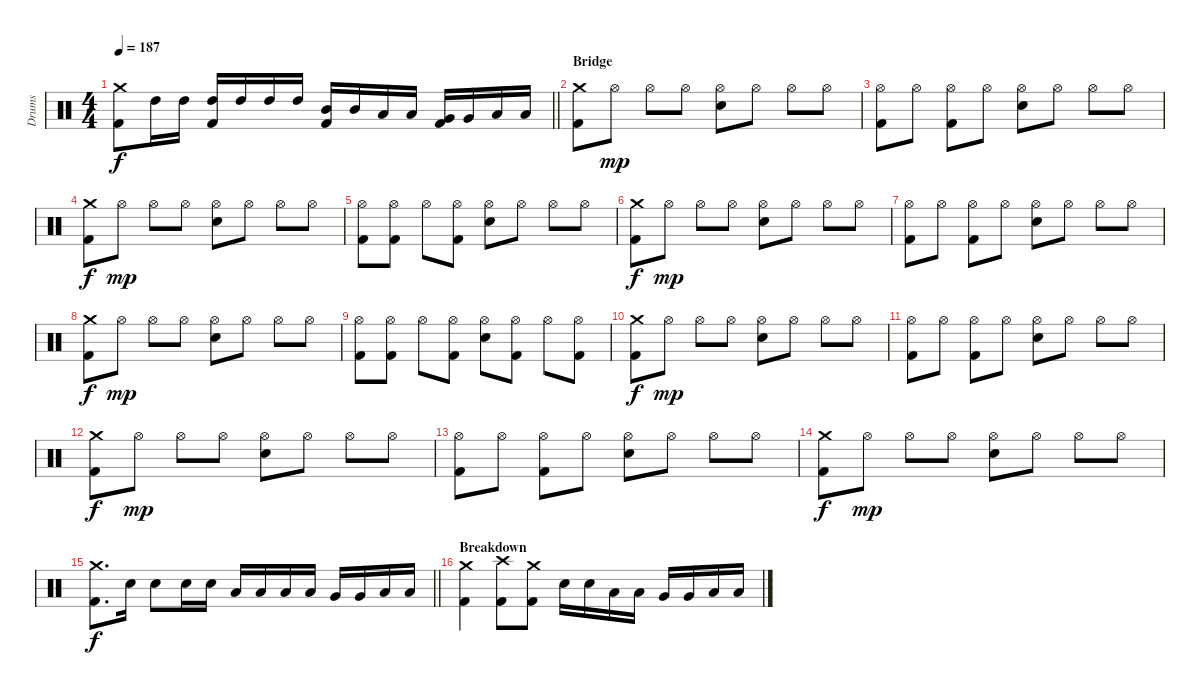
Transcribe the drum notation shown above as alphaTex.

\track ("Drums" "Drums") {instrument percussion}
\staff {score}
\articulation defaults
\ts (4 4)
\tempo 187
\clef neutral
\barLineRight lightlight
\ks c
("Crash medium (hit)" "Kick (hit) 2").8{dy f} "High Tom (hit)".16 "High Tom (hit)".16 ("High Tom (hit)" "Kick (hit) 2").16 "High Tom (hit)".16 "High Tom (hit)".16 "High Tom (hit)".16 ("Mid Tom (hit)" "Kick (hit) 2").16 "Mid Tom (hit)".16 "Low Tom (hit)".16 "Low Tom (hit)".16 ("Very Low Tom (hit)" "Kick (hit) 2").16 "Very Low Tom (hit)".16 "Low Floor Tom (hit)".16 "Low Floor Tom (hit)".16 |
\section ("" "Bridge")
("Crash medium (hit)" "Kick (hit) 2").8 "Hi-Hat (open)".8{dy mp} "Hi-Hat (open)".8 "Hi-Hat (open)".8 ("Hi-Hat (open)" "Snare (hit) 2").8 "Hi-Hat (open)".8 "Hi-Hat (open)".8 "Hi-Hat (open)".8 |
("Hi-Hat (open)" "Kick (hit) 2").8 "Hi-Hat (open)".8 ("Hi-Hat (open)" "Kick (hit) 2").8 "Hi-Hat (open)".8 ("Hi-Hat (open)" "Snare (hit) 2").8 "Hi-Hat (open)".8 "Hi-Hat (open)".8 "Hi-Hat (open)".8 |
("Crash medium (hit)" "Kick (hit) 2").8{dy f} "Hi-Hat (open)".8{dy mp} "Hi-Hat (open)".8 "Hi-Hat (open)".8 ("Hi-Hat (open)" "Snare (hit) 2").8 "Hi-Hat (open)".8 "Hi-Hat (open)".8 "Hi-Hat (open)".8 |
("Hi-Hat (open)" "Kick (hit) 2").8 ("Hi-Hat (open)" "Kick (hit) 2").8 "Hi-Hat (open)".8 ("Hi-Hat (open)" "Kick (hit) 2").8 ("Hi-Hat (open)" "Snare (hit) 2").8 "Hi-Hat (open)".8 "Hi-Hat (open)".8 "Hi-Hat (open)".8 |
("Crash medium (hit)" "Kick (hit) 2").8{dy f} "Hi-Hat (open)".8{dy mp} "Hi-Hat (open)".8 "Hi-Hat (open)".8 ("Hi-Hat (open)" "Snare (hit) 2").8 "Hi-Hat (open)".8 "Hi-Hat (open)".8 "Hi-Hat (open)".8 |
("Hi-Hat (open)" "Kick (hit) 2").8 "Hi-Hat (open)".8 ("Hi-Hat (open)" "Kick (hit) 2").8 "Hi-Hat (open)".8 ("Hi-Hat (open)" "Snare (hit) 2").8 "Hi-Hat (open)".8 "Hi-Hat (open)".8 "Hi-Hat (open)".8 |
("Crash medium (hit)" "Kick (hit) 2").8{dy f} "Hi-Hat (open)".8{dy mp} "Hi-Hat (open)".8 "Hi-Hat (open)".8 ("Hi-Hat (open)" "Snare (hit) 2").8 "Hi-Hat (open)".8 "Hi-Hat (open)".8 "Hi-Hat (open)".8 |
("Hi-Hat (open)" "Kick (hit) 2").8 ("Hi-Hat (open)" "Kick (hit) 2").8 "Hi-Hat (open)".8 ("Hi-Hat (open)" "Kick (hit) 2").8 ("Hi-Hat (open)" "Snare (hit) 2").8 ("Hi-Hat (open)" "Kick (hit) 2").8 "Hi-Hat (open)".8 ("Hi-Hat (open)" "Kick (hit) 2").8 |
("Crash medium (hit)" "Kick (hit) 2").8{dy f} "Hi-Hat (open)".8{dy mp} "Hi-Hat (open)".8 "Hi-Hat (open)".8 ("Hi-Hat (open)" "Snare (hit) 2").8 "Hi-Hat (open)".8 "Hi-Hat (open)".8 "Hi-Hat (open)".8 |
("Hi-Hat (open)" "Kick (hit) 2").8 "Hi-Hat (open)".8 ("Hi-Hat (open)" "Kick (hit) 2").8 "Hi-Hat (open)".8 ("Hi-Hat (open)" "Snare (hit) 2").8 "Hi-Hat (open)".8 "Hi-Hat (open)".8 "Hi-Hat (open)".8 |
("Crash medium (hit)" "Kick (hit) 2").8{dy f} "Hi-Hat (open)".8{dy mp} "Hi-Hat (open)".8 "Hi-Hat (open)".8 ("Hi-Hat (open)" "Snare (hit) 2").8 "Hi-Hat (open)".8 "Hi-Hat (open)".8 "Hi-Hat (open)".8 |
("Hi-Hat (open)" "Kick (hit) 2").8 "Hi-Hat (open)".8 ("Hi-Hat (open)" "Kick (hit) 2").8 "Hi-Hat (open)".8 ("Hi-Hat (open)" "Snare (hit) 2").8 "Hi-Hat (open)".8 "Hi-Hat (open)".8 "Hi-Hat (open)".8 |
("Crash medium (hit)" "Kick (hit) 2").8{dy f} "Hi-Hat (open)".8{dy mp} "Hi-Hat (open)".8 "Hi-Hat (open)".8 ("Hi-Hat (open)" "Snare (hit) 2").8 "Hi-Hat (open)".8 "Hi-Hat (open)".8 "Hi-Hat (open)".8 |
\barLineRight lightlight
("Crash medium (hit)" "Kick (hit) 2").8{d dy f} "Snare (hit) 2".16 "Snare (hit) 2".8 "Snare (hit) 2".16 "Snare (hit) 2".16 "Low Tom (hit)".16 "Low Tom (hit)".16 "Low Tom (hit)".16 "Low Tom (hit)".16 "Very Low Tom (hit)".16 "Very Low Tom (hit)".16 "Low Floor Tom (hit)".16 "Low Floor Tom (hit)".16 |
\section ("" "Breakdown")
("Crash medium (hit)" "Kick (hit) 2").4 ("Crash high (hit)" "Kick (hit) 2").8 ("Crash medium (hit)" "Kick (hit) 2").8 "Snare (hit) 2".16 "Snare (hit) 2".16 "Low Tom (hit)".16 "Low Tom (hit)".16 "Very Low Tom (hit)".16 "Very Low Tom (hit)".16 "Low Floor Tom (hit)".16 "Low Floor Tom (hit)".16
